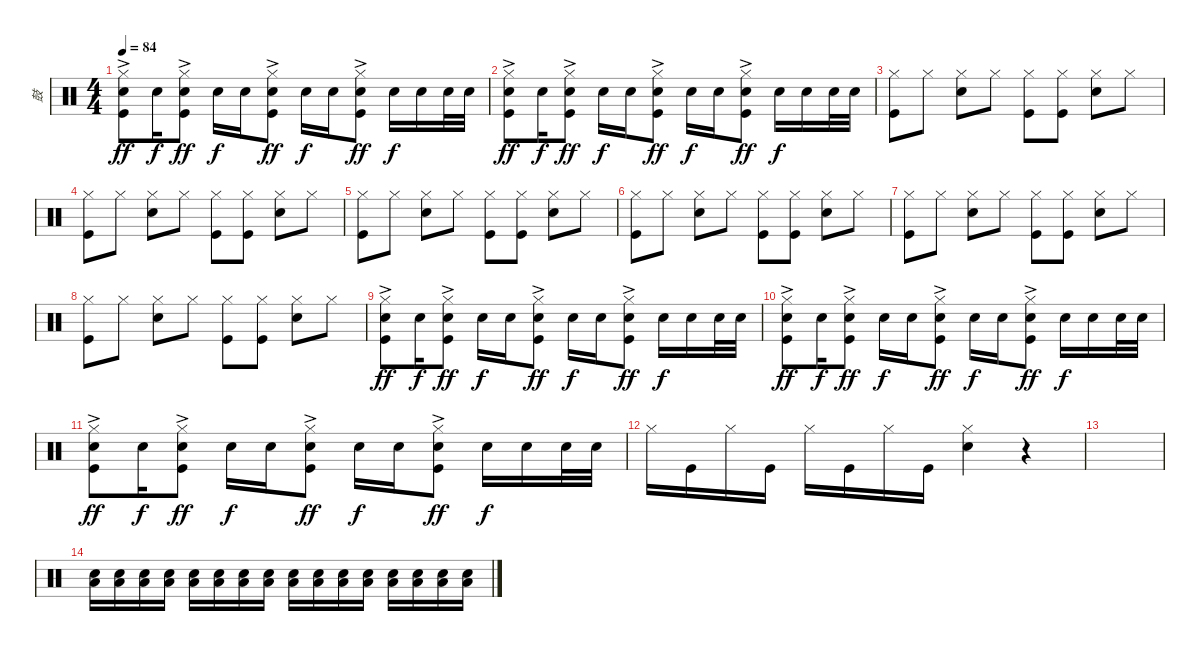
\track ("鼓" "鼓") {instrument percussion}
\staff {score}
\articulation defaults
\ts (4 4)
\tempo 84
\clef neutral
\ks c
("Hi-Hat (closed)" "Snare (hit) 2" "Kick (hit)"{ac}).8{dy ff} "Snare (hit) 2".16{dy f} ("Hi-Hat (closed)" "Snare (hit) 2" "Kick (hit)"{ac}).8{dy ff} "Snare (hit) 2".16{dy f} "Snare (hit) 2".16 ("Hi-Hat (closed)" "Snare (hit) 2" "Kick (hit)"{ac}).8{dy ff} "Snare (hit) 2".16{dy f} "Snare (hit) 2".16 ("Hi-Hat (closed)" "Snare (hit) 2" "Kick (hit)"{ac}).8{dy ff} "Snare (hit) 2".16{dy f} "Snare (hit) 2".16 "Snare (hit) 2".32 "Snare (hit) 2".32 |
("Hi-Hat (closed)" "Snare (hit) 2" "Kick (hit)"{ac}).8{dy ff} "Snare (hit) 2".16{dy f} ("Hi-Hat (closed)" "Snare (hit) 2" "Kick (hit)"{ac}).8{dy ff} "Snare (hit) 2".16{dy f} "Snare (hit) 2".16 ("Hi-Hat (closed)" "Snare (hit) 2" "Kick (hit)"{ac}).8{dy ff} "Snare (hit) 2".16{dy f} "Snare (hit) 2".16 ("Hi-Hat (closed)" "Snare (hit) 2" "Kick (hit)"{ac}).8{dy ff} "Snare (hit) 2".16{dy f} "Snare (hit) 2".16 "Snare (hit) 2".32 "Snare (hit) 2".32 |
("Hi-Hat (closed)" "Kick (hit)").8 "Hi-Hat (closed)".8 ("Hi-Hat (closed)" "Snare (hit) 2").8 "Hi-Hat (closed)".8 ("Hi-Hat (closed)" "Kick (hit)").8 ("Hi-Hat (closed)" "Kick (hit)").8 ("Hi-Hat (closed)" "Snare (hit) 2").8 "Hi-Hat (closed)".8 |
("Hi-Hat (closed)" "Kick (hit)").8 "Hi-Hat (closed)".8 ("Hi-Hat (closed)" "Snare (hit) 2").8 "Hi-Hat (closed)".8 ("Hi-Hat (closed)" "Kick (hit)").8 ("Hi-Hat (closed)" "Kick (hit)").8 ("Hi-Hat (closed)" "Snare (hit) 2").8 "Hi-Hat (closed)".8 |
("Hi-Hat (closed)" "Kick (hit)").8 "Hi-Hat (closed)".8 ("Hi-Hat (closed)" "Snare (hit) 2").8 "Hi-Hat (closed)".8 ("Hi-Hat (closed)" "Kick (hit)").8 ("Hi-Hat (closed)" "Kick (hit)").8 ("Hi-Hat (closed)" "Snare (hit) 2").8 "Hi-Hat (closed)".8 |
("Hi-Hat (closed)" "Kick (hit)").8 "Hi-Hat (closed)".8 ("Hi-Hat (closed)" "Snare (hit) 2").8 "Hi-Hat (closed)".8 ("Hi-Hat (closed)" "Kick (hit)").8 ("Hi-Hat (closed)" "Kick (hit)").8 ("Hi-Hat (closed)" "Snare (hit) 2").8 "Hi-Hat (closed)".8 |
("Hi-Hat (closed)" "Kick (hit)").8 "Hi-Hat (closed)".8 ("Hi-Hat (closed)" "Snare (hit) 2").8 "Hi-Hat (closed)".8 ("Hi-Hat (closed)" "Kick (hit)").8 ("Hi-Hat (closed)" "Kick (hit)").8 ("Hi-Hat (closed)" "Snare (hit) 2").8 "Hi-Hat (closed)".8 |
("Hi-Hat (closed)" "Kick (hit)").8 "Hi-Hat (closed)".8 ("Hi-Hat (closed)" "Snare (hit) 2").8 "Hi-Hat (closed)".8 ("Hi-Hat (closed)" "Kick (hit)").8 ("Hi-Hat (closed)" "Kick (hit)").8 ("Hi-Hat (closed)" "Snare (hit) 2").8 "Hi-Hat (closed)".8 |
("Hi-Hat (closed)" "Snare (hit) 2" "Kick (hit)"{ac}).8{dy ff} "Snare (hit) 2".16{dy f} ("Hi-Hat (closed)" "Snare (hit) 2" "Kick (hit)"{ac}).8{dy ff} "Snare (hit) 2".16{dy f} "Snare (hit) 2".16 ("Hi-Hat (closed)" "Snare (hit) 2" "Kick (hit)"{ac}).8{dy ff} "Snare (hit) 2".16{dy f} "Snare (hit) 2".16 ("Hi-Hat (closed)" "Snare (hit) 2" "Kick (hit)"{ac}).8{dy ff} "Snare (hit) 2".16{dy f} "Snare (hit) 2".16 "Snare (hit) 2".32 "Snare (hit) 2".32 |
("Hi-Hat (closed)" "Snare (hit) 2" "Kick (hit)"{ac}).8{dy ff} "Snare (hit) 2".16{dy f} ("Hi-Hat (closed)" "Snare (hit) 2" "Kick (hit)"{ac}).8{dy ff} "Snare (hit) 2".16{dy f} "Snare (hit) 2".16 ("Hi-Hat (closed)" "Snare (hit) 2" "Kick (hit)"{ac}).8{dy ff} "Snare (hit) 2".16{dy f} "Snare (hit) 2".16 ("Hi-Hat (closed)" "Snare (hit) 2" "Kick (hit)"{ac}).8{dy ff} "Snare (hit) 2".16{dy f} "Snare (hit) 2".16 "Snare (hit) 2".32 "Snare (hit) 2".32 |
("Hi-Hat (closed)" "Snare (hit) 2" "Kick (hit)"{ac}).8{dy ff} "Snare (hit) 2".16{dy f} ("Hi-Hat (closed)" "Snare (hit) 2" "Kick (hit)"{ac}).8{dy ff} "Snare (hit) 2".16{dy f} "Snare (hit) 2".16 ("Hi-Hat (closed)" "Snare (hit) 2" "Kick (hit)"{ac}).8{dy ff} "Snare (hit) 2".16{dy f} "Snare (hit) 2".16 ("Hi-Hat (closed)" "Snare (hit) 2" "Kick (hit)"{ac}).8{dy ff} "Snare (hit) 2".16{dy f} "Snare (hit) 2".16 "Snare (hit) 2".32 "Snare (hit) 2".32 |
"Hi-Hat (closed)".16 "Kick (hit)".16 "Hi-Hat (closed)".16 "Kick (hit)".16 "Hi-Hat (closed)".16 "Kick (hit)".16 "Hi-Hat (closed)".16 "Kick (hit)".16 ("Hi-Hat (closed)" "Snare (hit) 2").4 r.4 |
|
("Snare (hit) 2" "Low Tom (hit)").16{volume 16} ("Snare (hit) 2" "Low Tom (hit)").16 ("Snare (hit) 2" "Low Tom (hit)").16 ("Snare (hit) 2" "Low Tom (hit)").16 ("Snare (hit) 2" "Low Tom (hit)").16 ("Snare (hit) 2" "Low Tom (hit)").16 ("Snare (hit) 2" "Low Tom (hit)").16 ("Snare (hit) 2" "Low Tom (hit)").16 ("Snare (hit) 2" "Low Tom (hit)").16 ("Snare (hit) 2" "Low Tom (hit)").16 ("Snare (hit) 2" "Low Tom (hit)").16 ("Snare (hit) 2" "Low Tom (hit)").16 ("Snare (hit) 2" "Low Tom (hit)").16 ("Snare (hit) 2" "Low Tom (hit)").16 ("Snare (hit) 2" "Low Tom (hit)").16 ("Snare (hit) 2" "Low Tom (hit)").16
